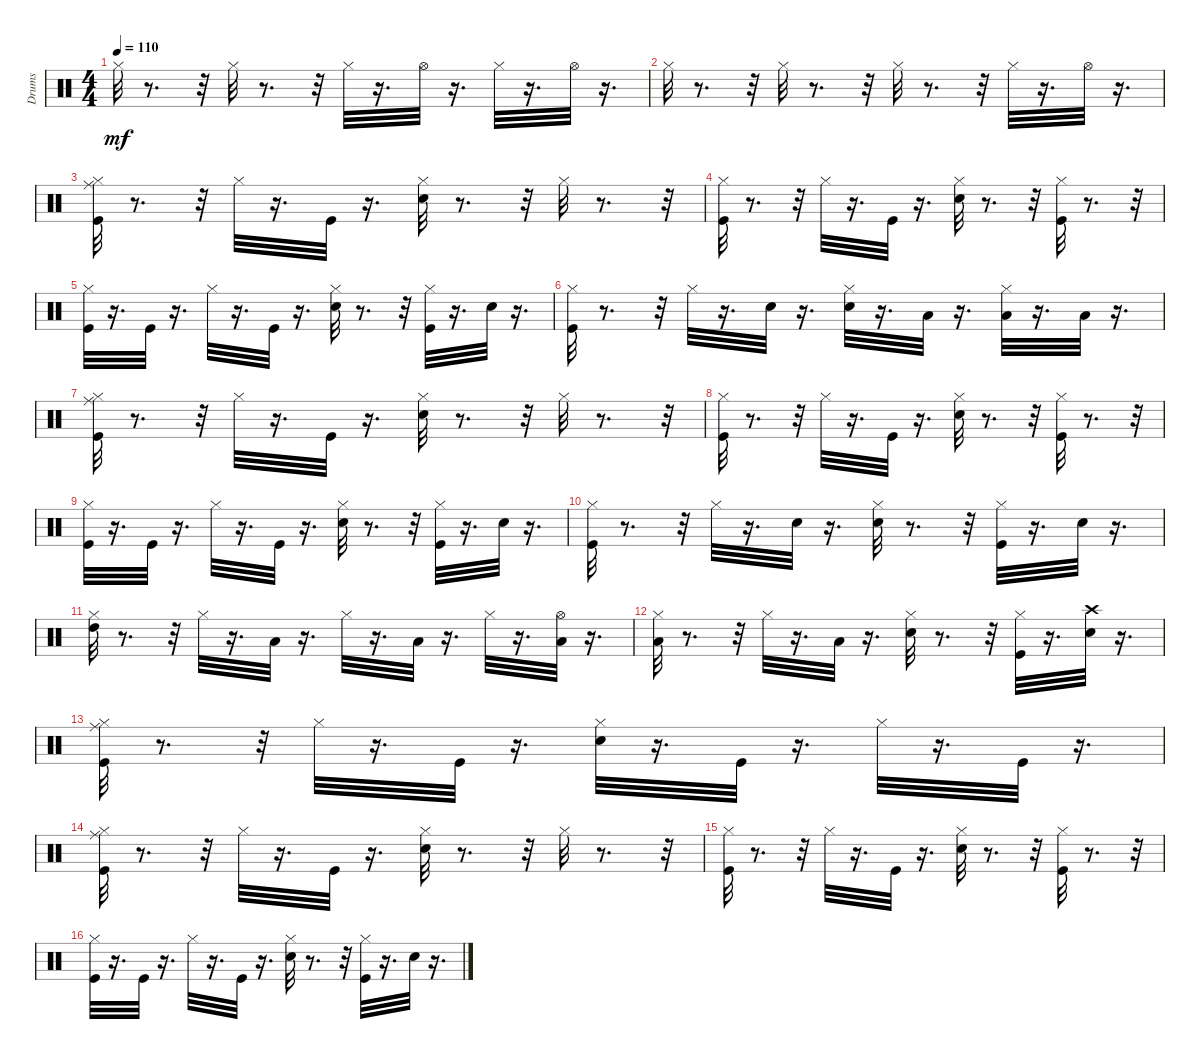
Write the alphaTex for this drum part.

\track ("Drums" "Drums") {instrument percussion}
\staff {score}
\articulation defaults
\ts (4 4)
\tempo 110
\clef neutral
\ks c "Hi-Hat (closed)".32{dy mf}
r.8{d} r.32 "Hi-Hat (closed)".32 r.8{d} r.32 "Hi-Hat (closed)".32 r.16{d} "Hi-Hat (open)".32 r.16{d} "Hi-Hat (closed)".32 r.16{d} "Hi-Hat (open)".32 r.16{d} |
"Hi-Hat (closed)".32 r.8{d} r.32 "Hi-Hat (closed)".32 r.8{d} r.32 "Hi-Hat (closed)".32 r.8{d} r.32 "Hi-Hat (closed)".32 r.16{d} "Hi-Hat (open)".32 r.16{d} |
("Kick (hit)" "Hi-Hat (closed)" "Ride (middle)").32 r.8{d} r.32 "Hi-Hat (closed)".32 r.16{d} "Kick (hit)".32 r.16{d} ("Snare (hit) 2" "Hi-Hat (closed)").32 r.8{d} r.32 "Hi-Hat (closed)".32 r.8{d} r.32 |
("Kick (hit)" "Hi-Hat (closed)").32 r.8{d} r.32 "Hi-Hat (closed)".32 r.16{d} "Kick (hit)".32 r.16{d} ("Snare (hit) 2" "Hi-Hat (closed)").32 r.8{d} r.32 ("Kick (hit)" "Hi-Hat (closed)").32 r.8{d} r.32 |
("Kick (hit)" "Hi-Hat (closed)").32 r.16{d} "Kick (hit)".32 r.16{d} "Hi-Hat (closed)".32 r.16{d} "Kick (hit)".32 r.16{d} ("Snare (hit) 2" "Hi-Hat (closed)").32 r.8{d} r.32 ("Kick (hit)" "Hi-Hat (closed)").32 r.16{d} "Snare (hit) 2".32 r.16{d} |
("Kick (hit)" "Hi-Hat (closed)").32 r.8{d} r.32 "Hi-Hat (closed)".32 r.16{d} "Snare (hit) 2".32 r.16{d} ("Snare (hit) 2" "Hi-Hat (closed)").32 r.16{d} "Low Floor Tom (hit)".32 r.16{d} ("Low Tom (hit)" "Hi-Hat (closed)").32 r.16{d} "Low Floor Tom (hit)".32 r.16{d} |
("Kick (hit)" "Hi-Hat (closed)" "Ride (middle)").32 r.8{d} r.32 "Hi-Hat (closed)".32 r.16{d} "Kick (hit)".32 r.16{d} ("Snare (hit) 2" "Hi-Hat (closed)").32 r.8{d} r.32 "Hi-Hat (closed)".32 r.8{d} r.32 |
("Kick (hit)" "Hi-Hat (closed)").32 r.8{d} r.32 "Hi-Hat (closed)".32 r.16{d} "Kick (hit)".32 r.16{d} ("Snare (hit) 2" "Hi-Hat (closed)").32 r.8{d} r.32 ("Kick (hit)" "Hi-Hat (closed)").32 r.8{d} r.32 |
("Kick (hit)" "Hi-Hat (closed)").32 r.16{d} "Kick (hit)".32 r.16{d} "Hi-Hat (closed)".32 r.16{d} "Kick (hit)".32 r.16{d} ("Snare (hit) 2" "Hi-Hat (closed)").32 r.8{d} r.32 ("Kick (hit)" "Hi-Hat (closed)").32 r.16{d} "Snare (hit) 2".32 r.16{d} |
("Kick (hit)" "Hi-Hat (closed)").32 r.8{d} r.32 "Hi-Hat (closed)".32 r.16{d} "Snare (hit) 2".32 r.16{d} ("Snare (hit) 2" "Hi-Hat (closed)").32 r.8{d} r.32 ("Kick (hit)" "Hi-Hat (closed)").32 r.16{d} "Snare (hit) 2".32 r.16{d} |
("High Tom (hit)" "Hi-Hat (closed)").32 r.8{d} r.32 "Hi-Hat (closed)".32 r.16{d} "Low Tom (hit)".32 r.16{d} "Hi-Hat (closed)".32 r.16{d} "Low Floor Tom (hit)".32 r.16{d} "Hi-Hat (closed)".32 r.16{d} ("Low Floor Tom (hit)" "Hi-Hat (open)").32 r.16{d} |
("Low Floor Tom (hit)" "Hi-Hat (closed)").32 r.8{d} r.32 "Hi-Hat (closed)".32 r.16{d} "Low Floor Tom (hit)".32 r.16{d} ("Snare (hit) 2" "Hi-Hat (closed)").32 r.8{d} r.32 ("Kick (hit)" "Hi-Hat (closed)").32 r.16{d} ("Snare (hit) 2" "Crash high (hit)").32 r.16{d} |
("Kick (hit)" "Hi-Hat (closed)" "Ride (middle)").32 r.8{d} r.32 "Hi-Hat (closed)".32 r.16{d} "Kick (hit)".32 r.16{d} ("Snare (hit) 2" "Hi-Hat (closed)").32 r.16{d} "Kick (hit)".32 r.16{d} "Hi-Hat (closed)".32 r.16{d} "Kick (hit)".32 r.16{d} |
("Kick (hit)" "Hi-Hat (closed)" "Ride (middle)").32 r.8{d} r.32 "Hi-Hat (closed)".32 r.16{d} "Kick (hit)".32 r.16{d} ("Snare (hit) 2" "Hi-Hat (closed)").32 r.8{d} r.32 "Hi-Hat (closed)".32 r.8{d} r.32 |
("Kick (hit)" "Hi-Hat (closed)").32 r.8{d} r.32 "Hi-Hat (closed)".32 r.16{d} "Kick (hit)".32 r.16{d} ("Snare (hit) 2" "Hi-Hat (closed)").32 r.8{d} r.32 ("Kick (hit)" "Hi-Hat (closed)").32 r.8{d} r.32 |
("Kick (hit)" "Hi-Hat (closed)").32 r.16{d} "Kick (hit)".32 r.16{d} "Hi-Hat (closed)".32 r.16{d} "Kick (hit)".32 r.16{d} ("Snare (hit) 2" "Hi-Hat (closed)").32 r.8{d} r.32 ("Kick (hit)" "Hi-Hat (closed)").32 r.16{d} "Snare (hit) 2".32 r.16{d}
